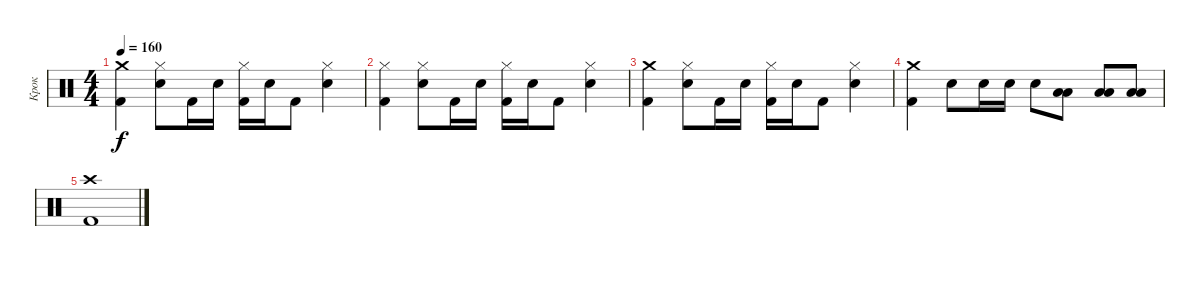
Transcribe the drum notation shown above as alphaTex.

\track ("Крок" "Крок") {instrument percussion}
\staff {score}
\articulation defaults
\ts (4 4)
\tempo 160
\clef neutral
\ks c
("Crash medium (hit)" "Kick (hit) 2").4{dy f} ("Hi-Hat (closed)" "Electric Snare (hit)").8 "Kick (hit) 2".16 "Electric Snare (hit)".16 ("Hi-Hat (closed)" "Kick (hit) 2").16 "Electric Snare (hit)".16 "Kick (hit) 2".8 ("Hi-Hat (closed)" "Electric Snare (hit)").4 |
("Hi-Hat (closed)" "Kick (hit) 2").4 ("Hi-Hat (closed)" "Electric Snare (hit)").8 "Kick (hit) 2".16 "Electric Snare (hit)".16 ("Hi-Hat (closed)" "Kick (hit) 2").16 "Electric Snare (hit)".16 "Kick (hit) 2".8 ("Hi-Hat (closed)" "Electric Snare (hit)").4 |
("Crash medium (hit)" "Kick (hit) 2").4 ("Hi-Hat (closed)" "Electric Snare (hit)").8 "Kick (hit) 2".16 "Electric Snare (hit)".16 ("Hi-Hat (closed)" "Kick (hit) 2").16 "Electric Snare (hit)".16 "Kick (hit) 2".8 ("Hi-Hat (closed)" "Electric Snare (hit)").4 |
("Crash medium (hit)" "Kick (hit) 2").4 "Electric Snare (hit)".8 "Electric Snare (hit)".16 "Electric Snare (hit)".16 "Electric Snare (hit)".8 ("Low Tom (hit)" "Low Floor Tom (hit)").8 ("Low Tom (hit)" "Low Floor Tom (hit)").8 ("Low Tom (hit)" "Low Floor Tom (hit)").8 |
("Kick (hit) 2" "Crash high (hit)").1
